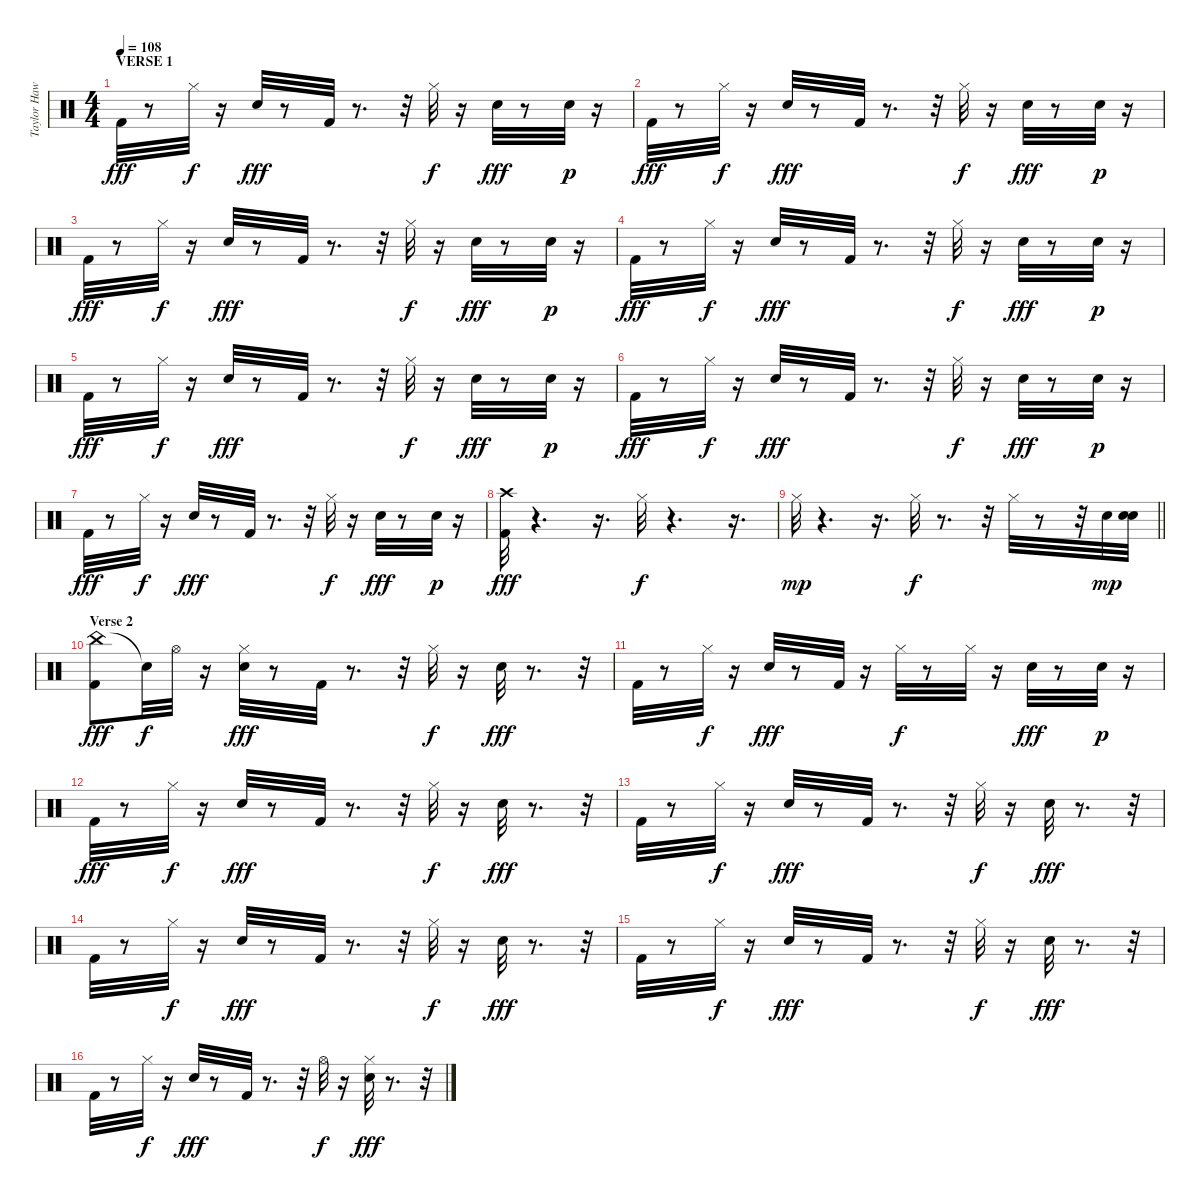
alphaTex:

\track ("Taylor Hawkins" "Taylor Haw") {instrument percussion}
\staff {score}
\articulation defaults
\ts (4 4)
\section ("" "VERSE 1")
\tempo 108
\clef neutral
\ks c "Kick (hit) 2".32{dy fff}
r.8 "Hi-Hat (closed)".32{dy f} r.16 "Snare (hit) 2".32{dy fff} r.8 "Kick (hit) 2".32 r.8{d} r.32 "Hi-Hat (closed)".32{dy f} r.16 "Snare (hit) 2".32{dy fff} r.8 "Snare (hit) 2".32{dy p} r.16 |
"Kick (hit) 2".32{dy fff} r.8 "Hi-Hat (closed)".32{dy f} r.16 "Snare (hit) 2".32{dy fff} r.8 "Kick (hit) 2".32 r.8{d} r.32 "Hi-Hat (closed)".32{dy f} r.16 "Snare (hit) 2".32{dy fff} r.8 "Snare (hit) 2".32{dy p} r.16 |
"Kick (hit) 2".32{dy fff} r.8 "Hi-Hat (closed)".32{dy f} r.16 "Snare (hit) 2".32{dy fff} r.8 "Kick (hit) 2".32 r.8{d} r.32 "Hi-Hat (closed)".32{dy f} r.16 "Snare (hit) 2".32{dy fff} r.8 "Snare (hit) 2".32{dy p} r.16 |
"Kick (hit) 2".32{dy fff} r.8 "Hi-Hat (closed)".32{dy f} r.16 "Snare (hit) 2".32{dy fff} r.8 "Kick (hit) 2".32 r.8{d} r.32 "Hi-Hat (closed)".32{dy f} r.16 "Snare (hit) 2".32{dy fff} r.8 "Snare (hit) 2".32{dy p} r.16 |
"Kick (hit) 2".32{dy fff} r.8 "Hi-Hat (closed)".32{dy f} r.16 "Snare (hit) 2".32{dy fff} r.8 "Kick (hit) 2".32 r.8{d} r.32 "Hi-Hat (closed)".32{dy f} r.16 "Snare (hit) 2".32{dy fff} r.8 "Snare (hit) 2".32{dy p} r.16 |
"Kick (hit) 2".32{dy fff} r.8 "Hi-Hat (closed)".32{dy f} r.16 "Snare (hit) 2".32{dy fff} r.8 "Kick (hit) 2".32 r.8{d} r.32 "Hi-Hat (closed)".32{dy f} r.16 "Snare (hit) 2".32{dy fff} r.8 "Snare (hit) 2".32{dy p} r.16 |
"Kick (hit) 2".32{dy fff} r.8 "Hi-Hat (closed)".32{dy f} r.16 "Snare (hit) 2".32{dy fff} r.8 "Kick (hit) 2".32 r.8{d} r.32 "Hi-Hat (closed)".32{dy f} r.16 "Snare (hit) 2".32{dy fff} r.8 "Snare (hit) 2".32{dy p} r.16 |
("Crash high (hit)" "Kick (hit) 2").32{dy fff} r.4{d} r.16{d} "Hi-Hat (closed)".32{dy f} r.4{d} r.16{d} |
\barLineRight lightlight "Hi-Hat (closed)".32{dy mp}
r.4{d} r.16{d} "Hi-Hat (closed)".32{dy f} r.8{d} r.32 "Hi-Hat (closed)".32 r.8 r.32 "Snare (hit) 2".32{dy mp} ("Snare (hit) 2" "Snare (hit) 2").32 |
\section ("" "Verse 2")
("China (hit)" "Kick (hit) 2").8{dy fff} "Snare (hit)"{t}.32{dy f} "Hi-Hat (open)".32 r.16 ("Hi-Hat (closed)" "Snare (hit) 2").32{dy fff} r.8 "Kick (hit) 2".32 r.8{d} r.32 "Hi-Hat (closed)".32{dy f} r.16 "Snare (hit) 2".32{dy fff} r.8{d} r.32 |
"Kick (hit) 2".32 r.8 "Hi-Hat (closed)".32{dy f} r.16 "Snare (hit) 2".32{dy fff} r.8 "Kick (hit) 2".32 r.16 "Hi-Hat (closed)".32{dy f} r.8 "Hi-Hat (closed)".32 r.16 "Snare (hit) 2".32{dy fff} r.8 "Snare (hit) 2".32{dy p} r.16 |
"Kick (hit) 2".32{dy fff} r.8 "Hi-Hat (closed)".32{dy f} r.16 "Snare (hit) 2".32{dy fff} r.8 "Kick (hit) 2".32 r.8{d} r.32 "Hi-Hat (closed)".32{dy f} r.16 "Snare (hit) 2".32{dy fff} r.8{d} r.32 |
"Kick (hit) 2".32 r.8 "Hi-Hat (closed)".32{dy f} r.16 "Snare (hit) 2".32{dy fff} r.8 "Kick (hit) 2".32 r.8{d} r.32 "Hi-Hat (closed)".32{dy f} r.16 "Snare (hit) 2".32{dy fff} r.8{d} r.32 |
"Kick (hit) 2".32 r.8 "Hi-Hat (closed)".32{dy f} r.16 "Snare (hit) 2".32{dy fff} r.8 "Kick (hit) 2".32 r.8{d} r.32 "Hi-Hat (closed)".32{dy f} r.16 "Snare (hit) 2".32{dy fff} r.8{d} r.32 |
"Kick (hit) 2".32 r.8 "Hi-Hat (closed)".32{dy f} r.16 "Snare (hit) 2".32{dy fff} r.8 "Kick (hit) 2".32 r.8{d} r.32 "Hi-Hat (closed)".32{dy f} r.16 "Snare (hit) 2".32{dy fff} r.8{d} r.32 |
"Kick (hit) 2".32 r.8 "Hi-Hat (closed)".32{dy f} r.16 "Snare (hit) 2".32{dy fff} r.8 "Kick (hit) 2".32 r.8{d} r.32 "Hi-Hat (open)".32{dy f} r.16 ("Hi-Hat (closed)" "Snare (hit) 2").32{dy fff} r.8{d} r.32
